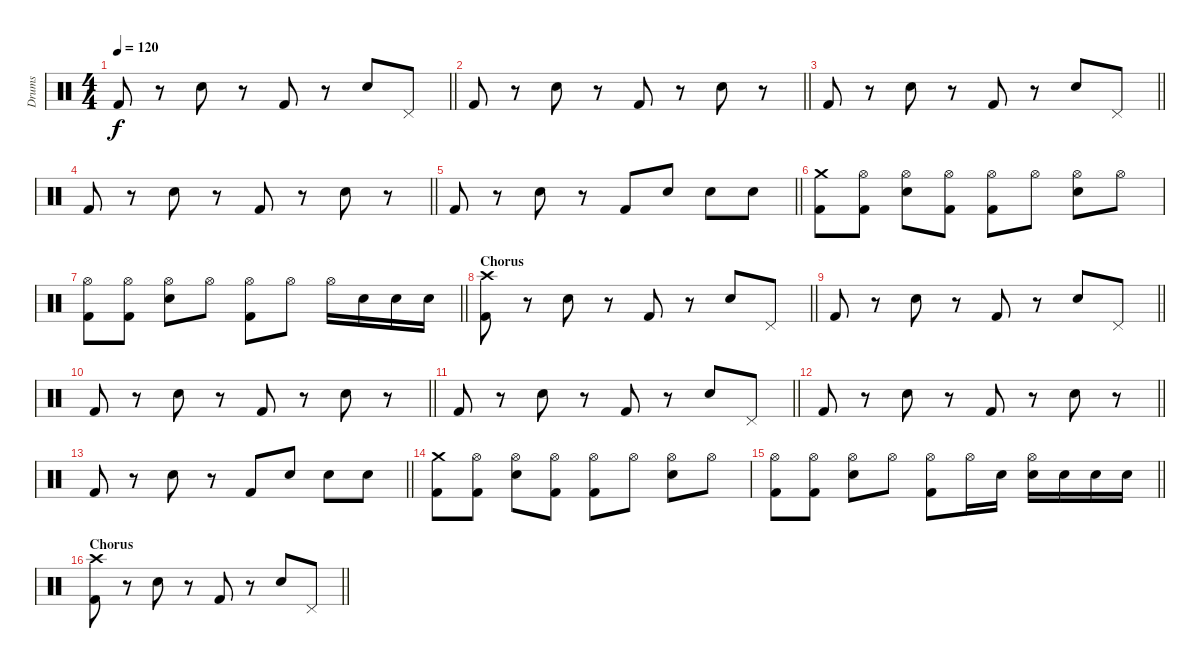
\track ("Drums" "Drums") {instrument percussion}
\staff {score}
\articulation defaults
\ts (4 4)
\tempo 120
\clef neutral
\barLineRight lightlight
\ks c "Kick (hit) 2".8{dy f}
r.8 "Snare (hit) 2".8 r.8 "Kick (hit) 2".8 r.8 "Snare (hit) 2".8 "Pedal Hi-Hat (hit)".8 |
\barLineRight lightlight "Kick (hit) 2".8
r.8 "Snare (hit) 2".8 r.8 "Kick (hit) 2".8 r.8 "Snare (hit) 2".8 r.8 |
\barLineRight lightlight "Kick (hit) 2".8
r.8 "Snare (hit) 2".8 r.8 "Kick (hit) 2".8 r.8 "Snare (hit) 2".8 "Pedal Hi-Hat (hit)".8 |
\barLineRight lightlight "Kick (hit) 2".8
r.8 "Snare (hit) 2".8 r.8 "Kick (hit) 2".8 r.8 "Snare (hit) 2".8 r.8 |
\barLineRight lightlight "Kick (hit) 2".8
r.8 "Snare (hit) 2".8 r.8 "Kick (hit) 2".8 "Snare (hit) 2".8 "Snare (hit) 2".8 "Snare (hit) 2".8 |
("Crash medium (hit)" "Kick (hit) 2").8 ("Hi-Hat (open)" "Kick (hit) 2").8 ("Hi-Hat (open)" "Snare (hit) 2").8 ("Hi-Hat (open)" "Kick (hit) 2").8 ("Hi-Hat (open)" "Kick (hit) 2").8 "Hi-Hat (open)".8 ("Hi-Hat (open)" "Snare (hit) 2").8 "Hi-Hat (open)".8 |
\barLineRight lightlight
("Hi-Hat (open)" "Kick (hit) 2").8 ("Hi-Hat (open)" "Kick (hit) 2").8 ("Hi-Hat (open)" "Snare (hit) 2").8 "Hi-Hat (open)".8 ("Hi-Hat (open)" "Kick (hit) 2").8 "Hi-Hat (open)".8 "Hi-Hat (open)".16 "Snare (hit) 2".16 "Snare (hit) 2".16 "Snare (hit) 2".16 |
\section ("" "Chorus")
\barLineRight lightlight
("Crash high (hit)" "Kick (hit) 2").8 r.8 "Snare (hit) 2".8 r.8 "Kick (hit) 2".8 r.8 "Snare (hit) 2".8 "Pedal Hi-Hat (hit)".8 |
\barLineRight lightlight "Kick (hit) 2".8
r.8 "Snare (hit) 2".8 r.8 "Kick (hit) 2".8 r.8 "Snare (hit) 2".8 "Pedal Hi-Hat (hit)".8 |
\barLineRight lightlight "Kick (hit) 2".8
r.8 "Snare (hit) 2".8 r.8 "Kick (hit) 2".8 r.8 "Snare (hit) 2".8 r.8 |
\barLineRight lightlight "Kick (hit) 2".8
r.8 "Snare (hit) 2".8 r.8 "Kick (hit) 2".8 r.8 "Snare (hit) 2".8 "Pedal Hi-Hat (hit)".8 |
\barLineRight lightlight "Kick (hit) 2".8
r.8 "Snare (hit) 2".8 r.8 "Kick (hit) 2".8 r.8 "Snare (hit) 2".8 r.8 |
\barLineRight lightlight "Kick (hit) 2".8
r.8 "Snare (hit) 2".8 r.8 "Kick (hit) 2".8 "Snare (hit) 2".8 "Snare (hit) 2".8 "Snare (hit) 2".8 |
("Crash medium (hit)" "Kick (hit) 2").8 ("Hi-Hat (open)" "Kick (hit) 2").8 ("Hi-Hat (open)" "Snare (hit) 2").8 ("Hi-Hat (open)" "Kick (hit) 2").8 ("Hi-Hat (open)" "Kick (hit) 2").8 "Hi-Hat (open)".8 ("Hi-Hat (open)" "Snare (hit) 2").8 "Hi-Hat (open)".8 |
\barLineRight lightlight
("Hi-Hat (open)" "Kick (hit) 2").8 ("Hi-Hat (open)" "Kick (hit) 2").8 ("Hi-Hat (open)" "Snare (hit) 2").8 "Hi-Hat (open)".8 ("Hi-Hat (open)" "Kick (hit) 2").8 "Hi-Hat (open)".16 "Snare (hit) 2".16 ("Hi-Hat (open)" "Snare (hit) 2").16 "Snare (hit) 2".16 "Snare (hit) 2".16 "Snare (hit) 2".16 |
\section ("" "Chorus")
\barLineRight lightlight
("Crash high (hit)" "Kick (hit) 2").8 r.8 "Snare (hit) 2".8 r.8 "Kick (hit) 2".8 r.8 "Snare (hit) 2".8 "Pedal Hi-Hat (hit)".8
